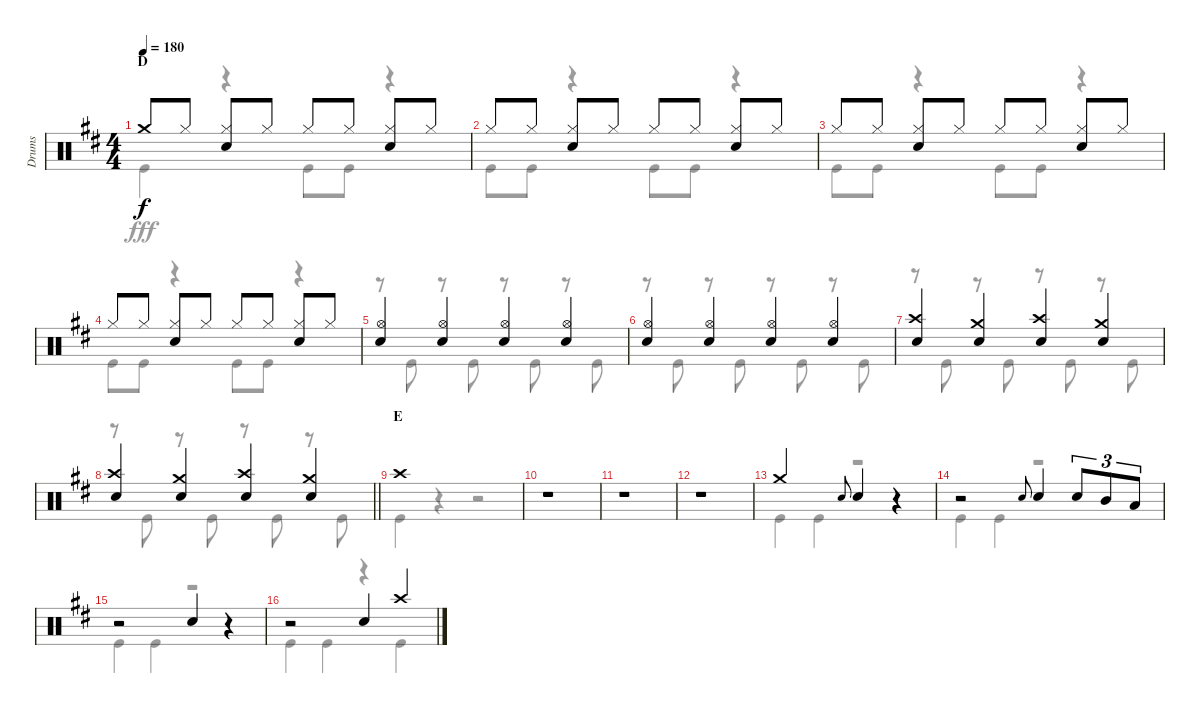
\track ("Drums" "Drums") {instrument percussion}
\staff {score}
\articulation defaults
\voice
\ts (4 4)
\section ("" "D")
\tempo 180
\clef neutral
\ks d "Crash medium (hit)".8{dy f} "Hi-Hat (closed)".8
("Hi-Hat (closed)" "Snare (hit) 2").8 "Hi-Hat (closed)".8 "Hi-Hat (closed)".8 "Hi-Hat (closed)".8 ("Hi-Hat (closed)" "Snare (hit) 2").8 "Hi-Hat (closed)".8 |
"Hi-Hat (closed)".8 "Hi-Hat (closed)".8 ("Hi-Hat (closed)" "Snare (hit) 2").8 "Hi-Hat (closed)".8 "Hi-Hat (closed)".8 "Hi-Hat (closed)".8 ("Hi-Hat (closed)" "Snare (hit) 2").8 "Hi-Hat (closed)".8 |
"Hi-Hat (closed)".8 "Hi-Hat (closed)".8 ("Hi-Hat (closed)" "Snare (hit) 2").8 "Hi-Hat (closed)".8 "Hi-Hat (closed)".8 "Hi-Hat (closed)".8 ("Hi-Hat (closed)" "Snare (hit) 2").8 "Hi-Hat (closed)".8 |
"Hi-Hat (closed)".8 "Hi-Hat (closed)".8 ("Hi-Hat (closed)" "Snare (hit) 2").8 "Hi-Hat (closed)".8 "Hi-Hat (closed)".8 "Hi-Hat (closed)".8 ("Hi-Hat (closed)" "Snare (hit) 2").8 "Hi-Hat (closed)".8 |
("Hi-Hat (open)" "Snare (hit) 2").4 ("Hi-Hat (open)" "Snare (hit) 2").4 ("Hi-Hat (open)" "Snare (hit) 2").4 ("Hi-Hat (open)" "Snare (hit) 2").4 |
("Hi-Hat (open)" "Snare (hit) 2").4 ("Hi-Hat (open)" "Snare (hit) 2").4 ("Hi-Hat (open)" "Snare (hit) 2").4 ("Hi-Hat (open)" "Snare (hit) 2").4 |
("Crash high (hit)" "Snare (hit) 2").4 ("Crash medium (hit)" "Snare (hit) 2").4 ("Crash high (hit)" "Snare (hit) 2").4 ("Crash medium (hit)" "Snare (hit) 2").4 |
\barLineRight lightlight
("Crash high (hit)" "Snare (hit) 2").4 ("Crash medium (hit)" "Snare (hit) 2").4 ("Crash high (hit)" "Snare (hit) 2").4 ("Crash medium (hit)" "Snare (hit) 2").4 |
\section ("" "E")
"Crash high (hit)".1 |
r.1 |
r.1 |
r.1 |
"Crash medium (hit)".2 "Snare (hit) 2".8{gr onbeat} "Snare (hit) 2".4 r.4 |
r.2 "Snare (hit) 2".8{gr onbeat} "Snare (hit) 2".4 "Snare (hit) 2".8{tu (3 2)} "Mid Tom (hit)".8{tu (3 2)} "Low Tom (hit)".8{tu (3 2)} |
r.2 "Snare (hit) 2".4 r.4 |
r.2 "Snare (hit) 2".4 "Crash high (hit)".4
\voice
\clef neutral
\ottava regular
\simile none
\ks d "Kick (hit)".4{dy fff}
r.4 "Kick (hit)".8 "Kick (hit)".8 r.4 |
"Kick (hit)".8 "Kick (hit)".8 r.4 "Kick (hit)".8 "Kick (hit)".8 r.4 |
"Kick (hit)".8 "Kick (hit)".8 r.4 "Kick (hit)".8 "Kick (hit)".8 r.4 |
"Kick (hit)".8 "Kick (hit)".8 r.4 "Kick (hit)".8 "Kick (hit)".8 r.4 |
r.8 "Kick (hit)".8 r.8 "Kick (hit)".8 r.8 "Kick (hit)".8 r.8 "Kick (hit)".8 |
r.8 "Kick (hit)".8 r.8 "Kick (hit)".8 r.8 "Kick (hit)".8 r.8 "Kick (hit)".8 |
r.8 "Kick (hit)".8 r.8 "Kick (hit)".8 r.8 "Kick (hit)".8 r.8 "Kick (hit)".8 |
\barLineRight lightlight
r.8 "Kick (hit)".8 r.8 "Kick (hit)".8 r.8 "Kick (hit)".8 r.8 "Kick (hit)".8 |
"Kick (hit)".4 r.4 r.2 |
r.1 |
r.1 |
r.1 |
"Kick (hit)".4 "Kick (hit)".4 r.2 |
"Kick (hit)".4 "Kick (hit)".4 r.2 |
"Kick (hit)".4 "Kick (hit)".4 r.2 |
"Kick (hit)".4 "Kick (hit)".4 r.4 "Kick (hit)".4
